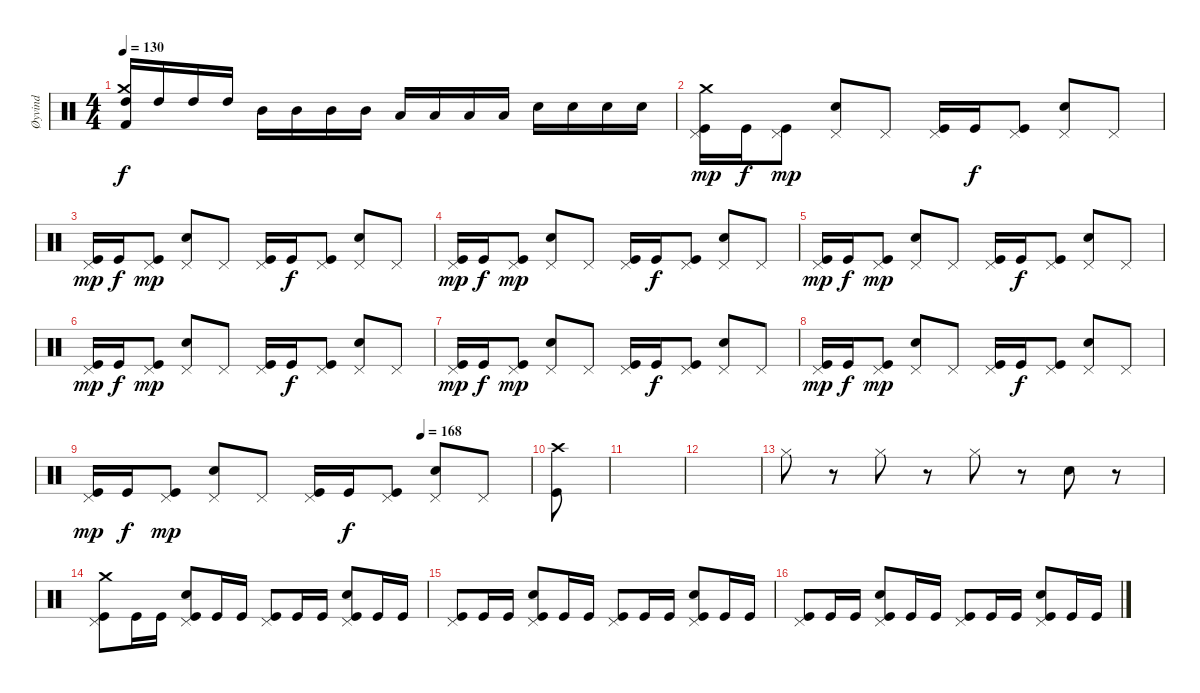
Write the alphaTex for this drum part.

\track ("Øyvind" "Øyvind") {instrument percussion}
\staff {score}
\articulation defaults
\ts (4 4)
\tempo 130
\clef neutral
\ks c
("High Tom (hit)" "Crash medium (hit)" "Kick (hit) 2").16{dy f} "High Tom (hit)".16 "High Tom (hit)".16 "High Tom (hit)".16 "Mid Tom (hit)".16 "Mid Tom (hit)".16 "Mid Tom (hit)".16 "Mid Tom (hit)".16 "Low Tom (hit)".16 "Low Tom (hit)".16 "Low Tom (hit)".16 "Low Tom (hit)".16 "Snare (hit) 2".16 "Snare (hit) 2".16 "Snare (hit) 2".16 "Snare (hit) 2".16 |
("Crash medium (hit)" "Pedal Hi-Hat (hit)" "Kick (hit)").16{dy mp} "Kick (hit)".16{dy f} ("Pedal Hi-Hat (hit)" "Kick (hit)").8{dy mp} ("Pedal Hi-Hat (hit)" "Snare (hit) 2").8 "Pedal Hi-Hat (hit)".8 ("Pedal Hi-Hat (hit)" "Kick (hit)").16 "Kick (hit)".16{dy f} ("Pedal Hi-Hat (hit)" "Kick (hit)").8 ("Pedal Hi-Hat (hit)" "Snare (hit) 2").8 "Pedal Hi-Hat (hit)".8 |
("Pedal Hi-Hat (hit)" "Kick (hit)").16{dy mp} "Kick (hit)".16{dy f} ("Pedal Hi-Hat (hit)" "Kick (hit)").8{dy mp} ("Pedal Hi-Hat (hit)" "Snare (hit) 2").8 "Pedal Hi-Hat (hit)".8 ("Pedal Hi-Hat (hit)" "Kick (hit)").16 "Kick (hit)".16{dy f} ("Pedal Hi-Hat (hit)" "Kick (hit)").8 ("Pedal Hi-Hat (hit)" "Snare (hit) 2").8 "Pedal Hi-Hat (hit)".8 |
("Pedal Hi-Hat (hit)" "Kick (hit)").16{dy mp} "Kick (hit)".16{dy f} ("Pedal Hi-Hat (hit)" "Kick (hit)").8{dy mp} ("Pedal Hi-Hat (hit)" "Snare (hit) 2").8 "Pedal Hi-Hat (hit)".8 ("Pedal Hi-Hat (hit)" "Kick (hit)").16 "Kick (hit)".16{dy f} ("Pedal Hi-Hat (hit)" "Kick (hit)").8 ("Pedal Hi-Hat (hit)" "Snare (hit) 2").8 "Pedal Hi-Hat (hit)".8 |
("Pedal Hi-Hat (hit)" "Kick (hit)").16{dy mp} "Kick (hit)".16{dy f} ("Pedal Hi-Hat (hit)" "Kick (hit)").8{dy mp} ("Pedal Hi-Hat (hit)" "Snare (hit) 2").8 "Pedal Hi-Hat (hit)".8 ("Pedal Hi-Hat (hit)" "Kick (hit)").16 "Kick (hit)".16{dy f} ("Pedal Hi-Hat (hit)" "Kick (hit)").8 ("Pedal Hi-Hat (hit)" "Snare (hit) 2").8 "Pedal Hi-Hat (hit)".8 |
("Pedal Hi-Hat (hit)" "Kick (hit)").16{dy mp} "Kick (hit)".16{dy f} ("Pedal Hi-Hat (hit)" "Kick (hit)").8{dy mp} ("Pedal Hi-Hat (hit)" "Snare (hit) 2").8 "Pedal Hi-Hat (hit)".8 ("Pedal Hi-Hat (hit)" "Kick (hit)").16 "Kick (hit)".16{dy f} ("Pedal Hi-Hat (hit)" "Kick (hit)").8 ("Pedal Hi-Hat (hit)" "Snare (hit) 2").8 "Pedal Hi-Hat (hit)".8 |
("Pedal Hi-Hat (hit)" "Kick (hit)").16{dy mp} "Kick (hit)".16{dy f} ("Pedal Hi-Hat (hit)" "Kick (hit)").8{dy mp} ("Pedal Hi-Hat (hit)" "Snare (hit) 2").8 "Pedal Hi-Hat (hit)".8 ("Pedal Hi-Hat (hit)" "Kick (hit)").16 "Kick (hit)".16{dy f} ("Pedal Hi-Hat (hit)" "Kick (hit)").8 ("Pedal Hi-Hat (hit)" "Snare (hit) 2").8 "Pedal Hi-Hat (hit)".8 |
("Pedal Hi-Hat (hit)" "Kick (hit)").16{dy mp} "Kick (hit)".16{dy f} ("Pedal Hi-Hat (hit)" "Kick (hit)").8{dy mp} ("Pedal Hi-Hat (hit)" "Snare (hit) 2").8 "Pedal Hi-Hat (hit)".8 ("Pedal Hi-Hat (hit)" "Kick (hit)").16 "Kick (hit)".16{dy f} ("Pedal Hi-Hat (hit)" "Kick (hit)").8 ("Pedal Hi-Hat (hit)" "Snare (hit) 2").8 "Pedal Hi-Hat (hit)".8 |
\tempo (168 0.75)
("Pedal Hi-Hat (hit)" "Kick (hit)").16{dy mp} "Kick (hit)".16{dy f} ("Pedal Hi-Hat (hit)" "Kick (hit)").8{dy mp} ("Pedal Hi-Hat (hit)" "Snare (hit) 2").8 "Pedal Hi-Hat (hit)".8 ("Pedal Hi-Hat (hit)" "Kick (hit)").16 "Kick (hit)".16{dy f} ("Pedal Hi-Hat (hit)" "Kick (hit)").8 ("Pedal Hi-Hat (hit)" "Snare (hit) 2").8 "Pedal Hi-Hat (hit)".8 |
("Crash high (hit)" "Kick (hit)").8 |
|
|
"Hi-Hat (closed)".8 r.8 "Hi-Hat (closed)".8 r.8 "Hi-Hat (closed)".8 r.8 "Snare (hit) 2".8 r.8 |
("Crash medium (hit)" "Pedal Hi-Hat (hit)" "Kick (hit)").8 "Kick (hit)".16 "Kick (hit)".16 ("Snare (hit) 2" "Pedal Hi-Hat (hit)" "Kick (hit)").8 "Kick (hit)".16 "Kick (hit)".16 ("Pedal Hi-Hat (hit)" "Kick (hit)").8 "Kick (hit)".16 "Kick (hit)".16 ("Snare (hit) 2" "Pedal Hi-Hat (hit)" "Kick (hit)").8 "Kick (hit)".16 "Kick (hit)".16 |
("Pedal Hi-Hat (hit)" "Kick (hit)").8 "Kick (hit)".16 "Kick (hit)".16 ("Snare (hit) 2" "Pedal Hi-Hat (hit)" "Kick (hit)").8 "Kick (hit)".16 "Kick (hit)".16 ("Pedal Hi-Hat (hit)" "Kick (hit)").8 "Kick (hit)".16 "Kick (hit)".16 ("Snare (hit) 2" "Pedal Hi-Hat (hit)" "Kick (hit)").8 "Kick (hit)".16 "Kick (hit)".16 |
("Pedal Hi-Hat (hit)" "Kick (hit)").8 "Kick (hit)".16 "Kick (hit)".16 ("Snare (hit) 2" "Pedal Hi-Hat (hit)" "Kick (hit)").8 "Kick (hit)".16 "Kick (hit)".16 ("Pedal Hi-Hat (hit)" "Kick (hit)").8 "Kick (hit)".16 "Kick (hit)".16 ("Snare (hit) 2" "Pedal Hi-Hat (hit)" "Kick (hit)").8 "Kick (hit)".16 "Kick (hit)".16
